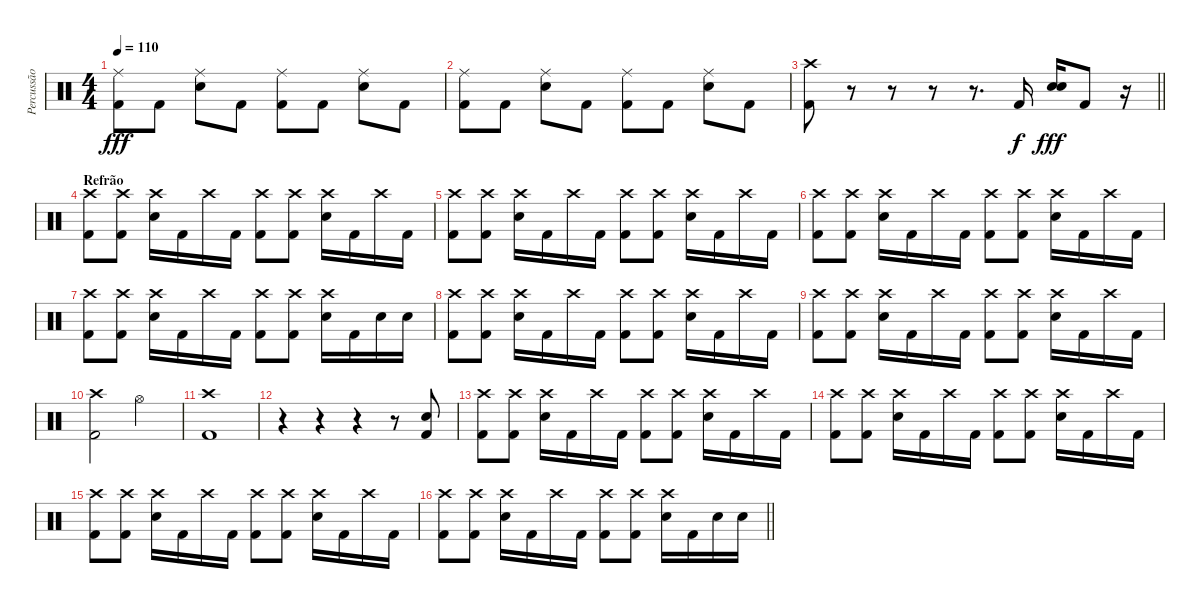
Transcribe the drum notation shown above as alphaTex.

\track ("Percussão" "Percussão") {instrument percussion}
\staff {score}
\articulation defaults
\ts (4 4)
\tempo 110
\clef neutral
\ks c
("Ride (middle)" "Kick (hit) 2").8{dy fff} "Kick (hit) 2".8 ("Ride (middle)" "Electric Snare (hit)").8 "Kick (hit) 2".8 ("Ride (middle)" "Kick (hit) 2").8 "Kick (hit) 2".8 ("Ride (middle)" "Electric Snare (hit)").8 "Kick (hit) 2".8 |
("Ride (middle)" "Kick (hit) 2").8 "Kick (hit) 2".8 ("Ride (middle)" "Electric Snare (hit)").8 "Kick (hit) 2".8 ("Ride (middle)" "Kick (hit) 2").8 "Kick (hit) 2".8 ("Ride (middle)" "Electric Snare (hit)").8 "Kick (hit) 2".8 |
\barLineRight lightlight
("Crash high (hit)" "Kick (hit) 2").8 r.8 r.8 r.8 r.8{d} "Kick (hit) 2".16{dy f} ("Electric Snare (hit)" "Electric Snare (hit)").16{bd 240 dy fff} "Kick (hit) 2".8 r.16 |
\section ("" "Refrão")
("Crash high (hit)" "Kick (hit) 2").8 ("Crash high (hit)" "Kick (hit) 2").8 ("Crash high (hit)" "Electric Snare (hit)").16 "Kick (hit) 2".16 "Crash high (hit)".16 "Kick (hit) 2".16 ("Crash high (hit)" "Kick (hit) 2").8 ("Crash high (hit)" "Kick (hit) 2").8 ("Crash high (hit)" "Electric Snare (hit)").16 "Kick (hit) 2".16 "Crash high (hit)".16 "Kick (hit) 2".16 |
("Crash high (hit)" "Kick (hit) 2").8 ("Crash high (hit)" "Kick (hit) 2").8 ("Crash high (hit)" "Electric Snare (hit)").16 "Kick (hit) 2".16 "Crash high (hit)".16 "Kick (hit) 2".16 ("Crash high (hit)" "Kick (hit) 2").8 ("Crash high (hit)" "Kick (hit) 2").8 ("Crash high (hit)" "Electric Snare (hit)").16 "Kick (hit) 2".16 "Crash high (hit)".16 "Kick (hit) 2".16 |
("Crash high (hit)" "Kick (hit) 2").8 ("Crash high (hit)" "Kick (hit) 2").8 ("Crash high (hit)" "Electric Snare (hit)").16 "Kick (hit) 2".16 "Crash high (hit)".16 "Kick (hit) 2".16 ("Crash high (hit)" "Kick (hit) 2").8 ("Crash high (hit)" "Kick (hit) 2").8 ("Crash high (hit)" "Electric Snare (hit)").16 "Kick (hit) 2".16 "Crash high (hit)".16 "Kick (hit) 2".16 |
("Crash high (hit)" "Kick (hit) 2").8 ("Crash high (hit)" "Kick (hit) 2").8 ("Crash high (hit)" "Electric Snare (hit)").16 "Kick (hit) 2".16 "Crash high (hit)".16 "Kick (hit) 2".16 ("Crash high (hit)" "Kick (hit) 2").8 ("Crash high (hit)" "Kick (hit) 2").8 ("Crash high (hit)" "Electric Snare (hit)").16 "Kick (hit) 2".16 "Electric Snare (hit)".16 "Electric Snare (hit)".16 |
("Crash high (hit)" "Kick (hit) 2").8 ("Crash high (hit)" "Kick (hit) 2").8 ("Crash high (hit)" "Electric Snare (hit)").16 "Kick (hit) 2".16 "Crash high (hit)".16 "Kick (hit) 2".16 ("Crash high (hit)" "Kick (hit) 2").8 ("Crash high (hit)" "Kick (hit) 2").8 ("Crash high (hit)" "Electric Snare (hit)").16 "Kick (hit) 2".16 "Crash high (hit)".16 "Kick (hit) 2".16 |
("Crash high (hit)" "Kick (hit) 2").8 ("Crash high (hit)" "Kick (hit) 2").8 ("Crash high (hit)" "Electric Snare (hit)").16 "Kick (hit) 2".16 "Crash high (hit)".16 "Kick (hit) 2".16 ("Crash high (hit)" "Kick (hit) 2").8 ("Crash high (hit)" "Kick (hit) 2").8 ("Crash high (hit)" "Electric Snare (hit)").16 "Kick (hit) 2".16 "Crash high (hit)".16 "Kick (hit) 2".16 |
("Crash high (hit)" "Kick (hit) 2").2 "Hi-Hat (open)".2 |
("Crash high (hit)" "Kick (hit) 2").1 |
r.4 r.4 r.4 r.8 ("Electric Snare (hit)" "Kick (hit) 2").8 |
("Crash high (hit)" "Kick (hit) 2").8 ("Crash high (hit)" "Kick (hit) 2").8 ("Crash high (hit)" "Electric Snare (hit)").16 "Kick (hit) 2".16 "Crash high (hit)".16 "Kick (hit) 2".16 ("Crash high (hit)" "Kick (hit) 2").8 ("Crash high (hit)" "Kick (hit) 2").8 ("Crash high (hit)" "Electric Snare (hit)").16 "Kick (hit) 2".16 "Crash high (hit)".16 "Kick (hit) 2".16 |
("Crash high (hit)" "Kick (hit) 2").8 ("Crash high (hit)" "Kick (hit) 2").8 ("Crash high (hit)" "Electric Snare (hit)").16 "Kick (hit) 2".16 "Crash high (hit)".16 "Kick (hit) 2".16 ("Crash high (hit)" "Kick (hit) 2").8 ("Crash high (hit)" "Kick (hit) 2").8 ("Crash high (hit)" "Electric Snare (hit)").16 "Kick (hit) 2".16 "Crash high (hit)".16 "Kick (hit) 2".16 |
("Crash high (hit)" "Kick (hit) 2").8 ("Crash high (hit)" "Kick (hit) 2").8 ("Crash high (hit)" "Electric Snare (hit)").16 "Kick (hit) 2".16 "Crash high (hit)".16 "Kick (hit) 2".16 ("Crash high (hit)" "Kick (hit) 2").8 ("Crash high (hit)" "Kick (hit) 2").8 ("Crash high (hit)" "Electric Snare (hit)").16 "Kick (hit) 2".16 "Crash high (hit)".16 "Kick (hit) 2".16 |
\barLineRight lightlight
("Crash high (hit)" "Kick (hit) 2").8 ("Crash high (hit)" "Kick (hit) 2").8 ("Crash high (hit)" "Electric Snare (hit)").16 "Kick (hit) 2".16 "Crash high (hit)".16 "Kick (hit) 2".16 ("Crash high (hit)" "Kick (hit) 2").8 ("Crash high (hit)" "Kick (hit) 2").8 ("Crash high (hit)" "Electric Snare (hit)").16 "Kick (hit) 2".16 "Electric Snare (hit)".16 "Electric Snare (hit)".16
